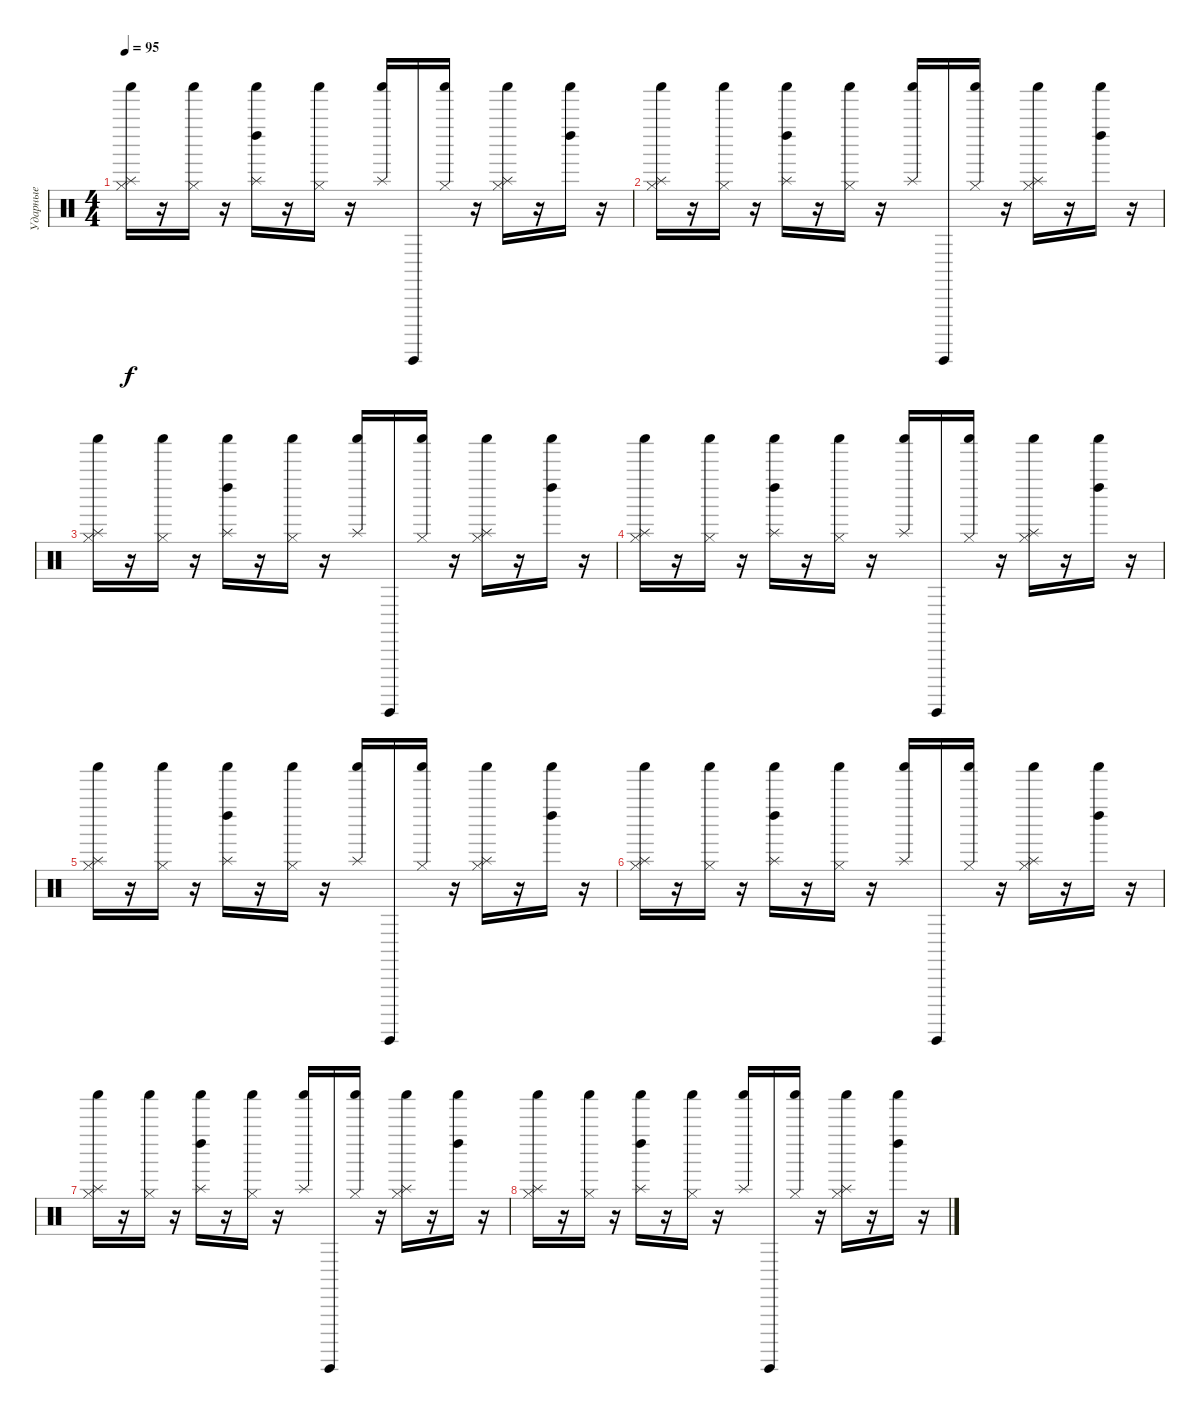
\track ("Ударные" "Ударные") {instrument percussion}
\staff {score}
\articulation defaults
\ts (4 4)
\tempo 95
\clef neutral
\ks c
("Shaker (hit)" "Hi-Hat (closed)" "Splash (hit)").16{dy f} r.16 ("Shaker (hit)" "Hi-Hat (closed)").16 r.16 ("Shaker (hit)" "Left Maraca (hit)" "Splash (hit)").16 r.16 ("Shaker (hit)" "Hi-Hat (closed)").16 r.16 ("Shaker (hit)" "Splash (hit)").16 "Guiro (hit)".16 ("Shaker (hit)" "Hi-Hat (closed)").16 r.16 ("Shaker (hit)" "Hi-Hat (closed)" "Splash (hit)").16 r.16 ("Shaker (hit)" "Left Maraca (hit)").16 r.16 |
("Shaker (hit)" "Hi-Hat (closed)" "Splash (hit)").16 r.16 ("Shaker (hit)" "Hi-Hat (closed)").16 r.16 ("Shaker (hit)" "Left Maraca (hit)" "Splash (hit)").16 r.16 ("Shaker (hit)" "Hi-Hat (closed)").16 r.16 ("Shaker (hit)" "Splash (hit)").16 "Guiro (hit)".16 ("Shaker (hit)" "Hi-Hat (closed)").16 r.16 ("Shaker (hit)" "Hi-Hat (closed)" "Splash (hit)").16 r.16 ("Shaker (hit)" "Left Maraca (hit)").16 r.16 |
("Shaker (hit)" "Hi-Hat (closed)" "Splash (hit)").16 r.16 ("Shaker (hit)" "Hi-Hat (closed)").16 r.16 ("Shaker (hit)" "Left Maraca (hit)" "Splash (hit)").16 r.16 ("Shaker (hit)" "Hi-Hat (closed)").16 r.16 ("Shaker (hit)" "Splash (hit)").16 "Guiro (hit)".16 ("Shaker (hit)" "Hi-Hat (closed)").16 r.16 ("Shaker (hit)" "Hi-Hat (closed)" "Splash (hit)").16 r.16 ("Shaker (hit)" "Left Maraca (hit)").16 r.16 |
("Shaker (hit)" "Hi-Hat (closed)" "Splash (hit)").16 r.16 ("Shaker (hit)" "Hi-Hat (closed)").16 r.16 ("Shaker (hit)" "Left Maraca (hit)" "Splash (hit)").16 r.16 ("Shaker (hit)" "Hi-Hat (closed)").16 r.16 ("Shaker (hit)" "Splash (hit)").16 "Guiro (hit)".16 ("Shaker (hit)" "Hi-Hat (closed)").16 r.16 ("Shaker (hit)" "Hi-Hat (closed)" "Splash (hit)").16 r.16 ("Shaker (hit)" "Left Maraca (hit)").16 r.16 |
("Shaker (hit)" "Hi-Hat (closed)" "Splash (hit)").16 r.16 ("Shaker (hit)" "Hi-Hat (closed)").16 r.16 ("Shaker (hit)" "Left Maraca (hit)" "Splash (hit)").16 r.16 ("Shaker (hit)" "Hi-Hat (closed)").16 r.16 ("Shaker (hit)" "Splash (hit)").16 "Guiro (hit)".16 ("Shaker (hit)" "Hi-Hat (closed)").16 r.16 ("Shaker (hit)" "Hi-Hat (closed)" "Splash (hit)").16 r.16 ("Shaker (hit)" "Left Maraca (hit)").16 r.16 |
("Shaker (hit)" "Hi-Hat (closed)" "Splash (hit)").16 r.16 ("Shaker (hit)" "Hi-Hat (closed)").16 r.16 ("Shaker (hit)" "Left Maraca (hit)" "Splash (hit)").16 r.16 ("Shaker (hit)" "Hi-Hat (closed)").16 r.16 ("Shaker (hit)" "Splash (hit)").16 "Guiro (hit)".16 ("Shaker (hit)" "Hi-Hat (closed)").16 r.16 ("Shaker (hit)" "Hi-Hat (closed)" "Splash (hit)").16 r.16 ("Shaker (hit)" "Left Maraca (hit)").16 r.16 |
("Shaker (hit)" "Hi-Hat (closed)" "Splash (hit)").16 r.16 ("Shaker (hit)" "Hi-Hat (closed)").16 r.16 ("Shaker (hit)" "Left Maraca (hit)" "Splash (hit)").16 r.16 ("Shaker (hit)" "Hi-Hat (closed)").16 r.16 ("Shaker (hit)" "Splash (hit)").16 "Guiro (hit)".16 ("Shaker (hit)" "Hi-Hat (closed)").16 r.16 ("Shaker (hit)" "Hi-Hat (closed)" "Splash (hit)").16 r.16 ("Shaker (hit)" "Left Maraca (hit)").16 r.16 |
("Shaker (hit)" "Hi-Hat (closed)" "Splash (hit)").16 r.16 ("Shaker (hit)" "Hi-Hat (closed)").16 r.16 ("Shaker (hit)" "Left Maraca (hit)" "Splash (hit)").16 r.16 ("Shaker (hit)" "Hi-Hat (closed)").16 r.16 ("Shaker (hit)" "Splash (hit)").16 "Guiro (hit)".16 ("Shaker (hit)" "Hi-Hat (closed)").16 r.16 ("Shaker (hit)" "Hi-Hat (closed)" "Splash (hit)").16 r.16 ("Shaker (hit)" "Left Maraca (hit)").16 r.16
